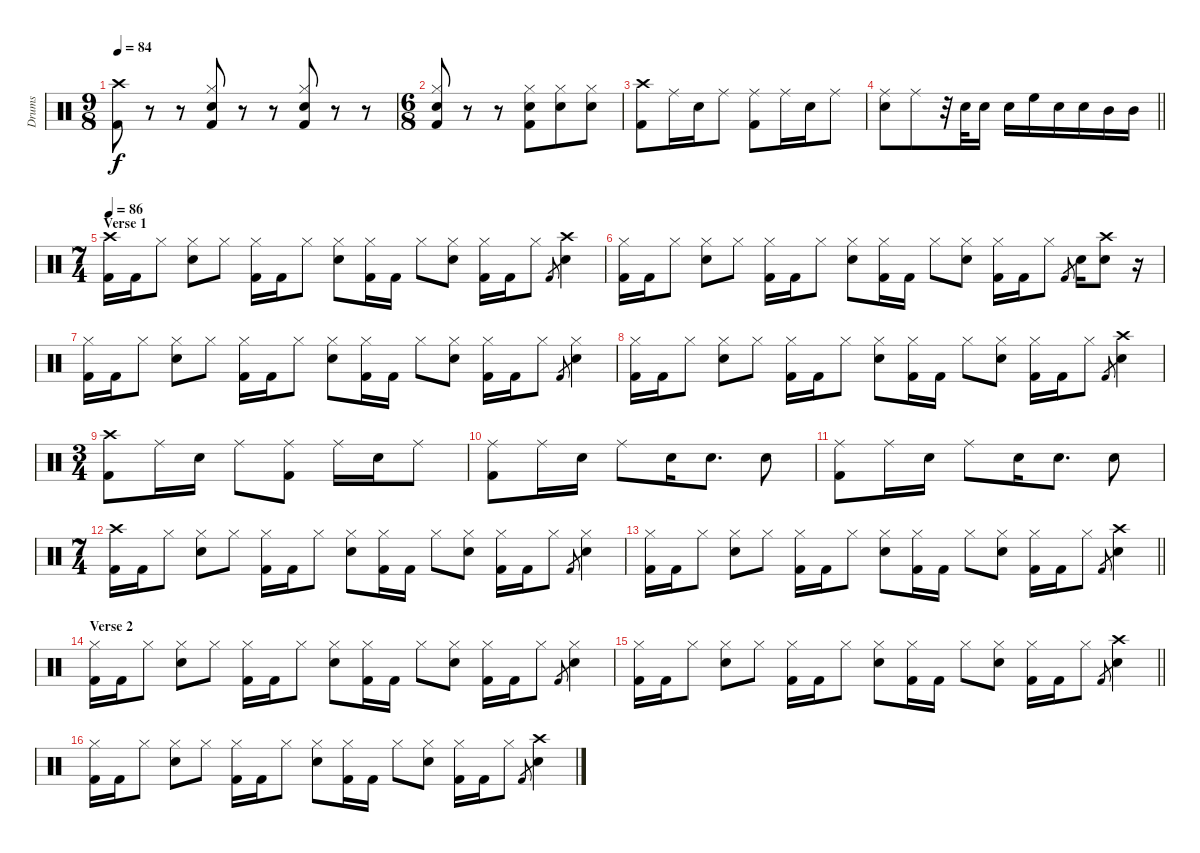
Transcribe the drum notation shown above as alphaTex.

\track ("Drums" "Drums") {instrument percussion}
\staff {score}
\articulation defaults
\ts (9 8)
\tempo 84
\clef neutral
\ks c
("Crash high (hit)" "Kick (hit) 2").8{dy f} r.8 r.8 ("Hi-Hat (closed)" "Snare (hit) 2" "Kick (hit) 2").8 r.8 r.8 ("Hi-Hat (closed)" "Snare (hit) 2" "Kick (hit) 2").8 r.8 r.8 |
\ts (6 8)
("Hi-Hat (closed)" "Snare (hit) 2" "Kick (hit) 2").8 r.8 r.8 ("Hi-Hat (closed)" "Snare (hit) 2" "Kick (hit) 2").8 ("Hi-Hat (closed)" "Snare (hit) 2").8 ("Hi-Hat (closed)" "Snare (hit) 2").8 |
("Crash high (hit)" "Kick (hit) 2").8 "Ride (middle)".16 "Snare (hit) 2".16 "Ride (middle)".8 ("Ride (middle)" "Kick (hit) 2").8 "Ride (middle)".16 "Snare (hit) 2".16 "Ride (middle)".8 |
\barLineRight lightlight
("Ride (middle)" "Snare (hit) 2").8 "Ride (middle)".8 r.32 "Snare (hit) 2".32 "Snare (hit) 2".16 "Snare (hit) 2".16 "High Floor Tom (hit)".16 "Snare (hit) 2".16 "Snare (hit) 2".16 "Mid Tom (hit)".16 "Mid Tom (hit)".16 |
\ts (7 4)
\section ("" "Verse 1")
\tempo 86
("Crash high (hit)" "Kick (hit) 2").16 "Kick (hit) 2".16 "Hi-Hat (closed)".8 ("Hi-Hat (closed)" "Snare (hit) 2").8 "Hi-Hat (closed)".8 ("Hi-Hat (closed)" "Kick (hit) 2").16 "Kick (hit) 2".16 "Hi-Hat (closed)".8 ("Hi-Hat (closed)" "Snare (hit) 2").8 ("Hi-Hat (closed)" "Kick (hit) 2").16 "Kick (hit) 2".16 "Hi-Hat (closed)".8 ("Hi-Hat (closed)" "Snare (hit) 2").8 ("Hi-Hat (closed)" "Kick (hit) 2").16 "Kick (hit) 2".16 "Hi-Hat (closed)".8 "Kick (hit) 2".8{gr} ("Crash high (hit)" "Snare (hit) 2").4 |
("Hi-Hat (closed)" "Kick (hit) 2").16 "Kick (hit) 2".16 "Hi-Hat (closed)".8 ("Hi-Hat (closed)" "Snare (hit) 2").8 "Hi-Hat (closed)".8 ("Hi-Hat (closed)" "Kick (hit) 2").16 "Kick (hit) 2".16 "Hi-Hat (closed)".8 ("Hi-Hat (closed)" "Snare (hit) 2").8 ("Hi-Hat (closed)" "Kick (hit) 2").16 "Kick (hit) 2".16 "Hi-Hat (closed)".8 ("Hi-Hat (closed)" "Snare (hit) 2").8 ("Hi-Hat (closed)" "Kick (hit) 2").16 "Kick (hit) 2".16 "Hi-Hat (closed)".8 "Kick (hit) 2".8{gr} "Snare (hit) 2".16 ("Crash high (hit)" "Snare (hit) 2").8 r.16 |
("Hi-Hat (closed)" "Kick (hit) 2").16 "Kick (hit) 2".16 "Hi-Hat (closed)".8 ("Hi-Hat (closed)" "Snare (hit) 2").8 "Hi-Hat (closed)".8 ("Hi-Hat (closed)" "Kick (hit) 2").16 "Kick (hit) 2".16 "Hi-Hat (closed)".8 ("Hi-Hat (closed)" "Snare (hit) 2").8 ("Hi-Hat (closed)" "Kick (hit) 2").16 "Kick (hit) 2".16 "Hi-Hat (closed)".8 ("Hi-Hat (closed)" "Snare (hit) 2").8 ("Hi-Hat (closed)" "Kick (hit) 2").16 "Kick (hit) 2".16 "Hi-Hat (closed)".8 "Kick (hit) 2".8{gr} ("Hi-Hat (closed)" "Snare (hit) 2").4 |
("Hi-Hat (closed)" "Kick (hit) 2").16 "Kick (hit) 2".16 "Hi-Hat (closed)".8 ("Hi-Hat (closed)" "Snare (hit) 2").8 "Hi-Hat (closed)".8 ("Hi-Hat (closed)" "Kick (hit) 2").16 "Kick (hit) 2".16 "Hi-Hat (closed)".8 ("Hi-Hat (closed)" "Snare (hit) 2").8 ("Hi-Hat (closed)" "Kick (hit) 2").16 "Kick (hit) 2".16 "Hi-Hat (closed)".8 ("Hi-Hat (closed)" "Snare (hit) 2").8 ("Hi-Hat (closed)" "Kick (hit) 2").16 "Kick (hit) 2".16 "Hi-Hat (closed)".8 "Kick (hit) 2".8{gr} ("Crash high (hit)" "Snare (hit) 2").4 |
\ts (3 4)
("Crash high (hit)" "Kick (hit) 2").8 "Ride (middle)".16 "Snare (hit) 2".16 "Ride (middle)".8 ("Ride (middle)" "Kick (hit) 2").8 "Ride (middle)".16 "Snare (hit) 2".16 "Ride (middle)".8 |
("Ride (middle)" "Kick (hit) 2").8 "Ride (middle)".16 "Snare (hit) 2".16 "Ride (middle)".8 "Snare (hit) 2".16 "Snare (hit) 2".8{d} "Snare (hit) 2".8 |
("Ride (middle)" "Kick (hit) 2").8 "Ride (middle)".16 "Snare (hit) 2".16 "Ride (middle)".8 "Snare (hit) 2".16 "Snare (hit) 2".8{d} "Snare (hit) 2".8 |
\ts (7 4)
("Crash high (hit)" "Kick (hit) 2").16 "Kick (hit) 2".16 "Hi-Hat (closed)".8 ("Hi-Hat (closed)" "Snare (hit) 2").8 "Hi-Hat (closed)".8 ("Hi-Hat (closed)" "Kick (hit) 2").16 "Kick (hit) 2".16 "Hi-Hat (closed)".8 ("Hi-Hat (closed)" "Snare (hit) 2").8 ("Hi-Hat (closed)" "Kick (hit) 2").16 "Kick (hit) 2".16 "Hi-Hat (closed)".8 ("Hi-Hat (closed)" "Snare (hit) 2").8 ("Hi-Hat (closed)" "Kick (hit) 2").16 "Kick (hit) 2".16 "Hi-Hat (closed)".8 "Kick (hit) 2".8{gr} ("Hi-Hat (closed)" "Snare (hit) 2").4 |
\barLineRight lightlight
("Hi-Hat (closed)" "Kick (hit) 2").16 "Kick (hit) 2".16 "Hi-Hat (closed)".8 ("Hi-Hat (closed)" "Snare (hit) 2").8 "Hi-Hat (closed)".8 ("Hi-Hat (closed)" "Kick (hit) 2").16 "Kick (hit) 2".16 "Hi-Hat (closed)".8 ("Hi-Hat (closed)" "Snare (hit) 2").8 ("Hi-Hat (closed)" "Kick (hit) 2").16 "Kick (hit) 2".16 "Hi-Hat (closed)".8 ("Hi-Hat (closed)" "Snare (hit) 2").8 ("Hi-Hat (closed)" "Kick (hit) 2").16 "Kick (hit) 2".16 "Hi-Hat (closed)".8 "Kick (hit) 2".8{gr} ("Crash high (hit)" "Snare (hit) 2").4 |
\section ("" "Verse 2")
("Hi-Hat (closed)" "Kick (hit) 2").16 "Kick (hit) 2".16 "Hi-Hat (closed)".8 ("Hi-Hat (closed)" "Snare (hit) 2").8 "Hi-Hat (closed)".8 ("Hi-Hat (closed)" "Kick (hit) 2").16 "Kick (hit) 2".16 "Hi-Hat (closed)".8 ("Hi-Hat (closed)" "Snare (hit) 2").8 ("Hi-Hat (closed)" "Kick (hit) 2").16 "Kick (hit) 2".16 "Hi-Hat (closed)".8 ("Hi-Hat (closed)" "Snare (hit) 2").8 ("Hi-Hat (closed)" "Kick (hit) 2").16 "Kick (hit) 2".16 "Hi-Hat (closed)".8 "Kick (hit) 2".8{gr} ("Hi-Hat (closed)" "Snare (hit) 2").4 |
\barLineRight lightlight
("Hi-Hat (closed)" "Kick (hit) 2").16 "Kick (hit) 2".16 "Hi-Hat (closed)".8 ("Hi-Hat (closed)" "Snare (hit) 2").8 "Hi-Hat (closed)".8 ("Hi-Hat (closed)" "Kick (hit) 2").16 "Kick (hit) 2".16 "Hi-Hat (closed)".8 ("Hi-Hat (closed)" "Snare (hit) 2").8 ("Hi-Hat (closed)" "Kick (hit) 2").16 "Kick (hit) 2".16 "Hi-Hat (closed)".8 ("Hi-Hat (closed)" "Snare (hit) 2").8 ("Hi-Hat (closed)" "Kick (hit) 2").16 "Kick (hit) 2".16 "Hi-Hat (closed)".8 "Kick (hit) 2".8{gr} ("Crash high (hit)" "Snare (hit) 2").4 |
("Hi-Hat (closed)" "Kick (hit) 2").16 "Kick (hit) 2".16 "Hi-Hat (closed)".8 ("Hi-Hat (closed)" "Snare (hit) 2").8 "Hi-Hat (closed)".8 ("Hi-Hat (closed)" "Kick (hit) 2").16 "Kick (hit) 2".16 "Hi-Hat (closed)".8 ("Hi-Hat (closed)" "Snare (hit) 2").8 ("Hi-Hat (closed)" "Kick (hit) 2").16 "Kick (hit) 2".16 "Hi-Hat (closed)".8 ("Hi-Hat (closed)" "Snare (hit) 2").8 ("Hi-Hat (closed)" "Kick (hit) 2").16 "Kick (hit) 2".16 "Hi-Hat (closed)".8 "Kick (hit) 2".8{gr} ("Crash high (hit)" "Snare (hit) 2").4
